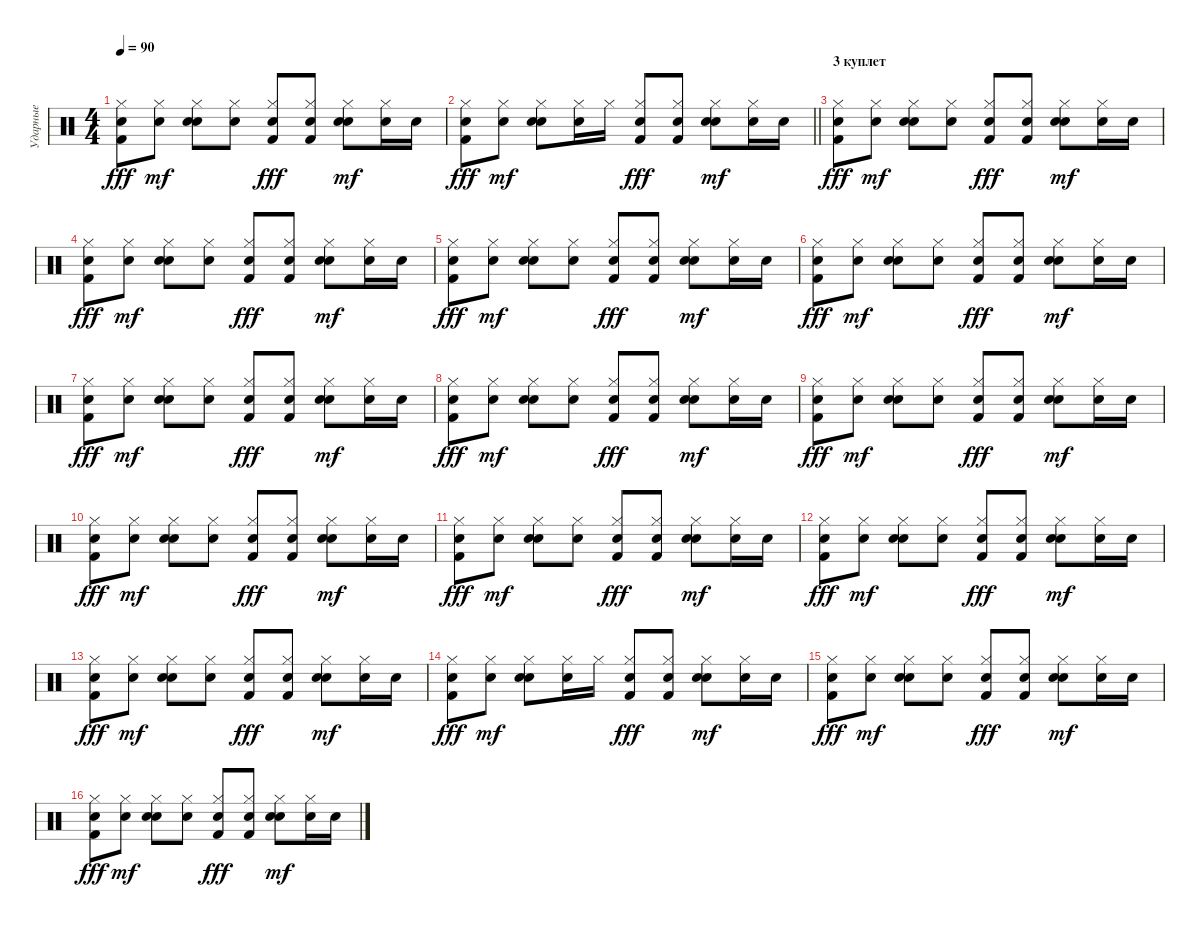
\track ("Ударные" "Ударные") {instrument percussion}
\staff {score}
\articulation defaults
\ts (4 4)
\tempo 90
\clef neutral
\ks c
("Hand Clap (hit)" "Hi-Hat (closed)" "Kick (hit) 2").8{dy fff} ("Hand Clap (hit)" "Hi-Hat (closed)").8{dy mf} ("Hand Clap (hit)" "Hi-Hat (closed)" "Snare (hit) 2").8 ("Hand Clap (hit)" "Hi-Hat (closed)").8 ("Hand Clap (hit)" "Hi-Hat (closed)" "Kick (hit) 2").8{dy fff} ("Hand Clap (hit)" "Hi-Hat (closed)" "Kick (hit) 2").8 ("Hand Clap (hit)" "Hi-Hat (closed)" "Snare (hit) 2").8{dy mf} ("Hand Clap (hit)" "Hi-Hat (closed)").16 "Hand Clap (hit)".16 |
\barLineRight lightlight
("Hand Clap (hit)" "Hi-Hat (closed)" "Kick (hit) 2").8{dy fff} ("Hand Clap (hit)" "Hi-Hat (closed)").8{dy mf} ("Hand Clap (hit)" "Hi-Hat (closed)" "Snare (hit) 2").8 ("Hand Clap (hit)" "Hi-Hat (closed)").16 "Hi-Hat (closed)".16 ("Hand Clap (hit)" "Hi-Hat (closed)" "Kick (hit) 2").8{dy fff} ("Hand Clap (hit)" "Hi-Hat (closed)" "Kick (hit) 2").8 ("Hand Clap (hit)" "Hi-Hat (closed)" "Snare (hit) 2").8{dy mf} ("Hand Clap (hit)" "Hi-Hat (closed)").16 "Hand Clap (hit)".16 |
\section ("" "3 куплет")
("Hand Clap (hit)" "Hi-Hat (closed)" "Kick (hit) 2").8{dy fff} ("Hand Clap (hit)" "Hi-Hat (closed)").8{dy mf} ("Hand Clap (hit)" "Hi-Hat (closed)" "Snare (hit) 2").8 ("Hand Clap (hit)" "Hi-Hat (closed)").8 ("Hand Clap (hit)" "Hi-Hat (closed)" "Kick (hit) 2").8{dy fff} ("Hand Clap (hit)" "Hi-Hat (closed)" "Kick (hit) 2").8 ("Hand Clap (hit)" "Hi-Hat (closed)" "Snare (hit) 2").8{dy mf} ("Hand Clap (hit)" "Hi-Hat (closed)").16 "Hand Clap (hit)".16 |
("Hand Clap (hit)" "Hi-Hat (closed)" "Kick (hit) 2").8{dy fff} ("Hand Clap (hit)" "Hi-Hat (closed)").8{dy mf} ("Hand Clap (hit)" "Hi-Hat (closed)" "Snare (hit) 2").8 ("Hand Clap (hit)" "Hi-Hat (closed)").8 ("Hand Clap (hit)" "Hi-Hat (closed)" "Kick (hit) 2").8{dy fff} ("Hand Clap (hit)" "Hi-Hat (closed)" "Kick (hit) 2").8 ("Hand Clap (hit)" "Hi-Hat (closed)" "Snare (hit) 2").8{dy mf} ("Hand Clap (hit)" "Hi-Hat (closed)").16 "Hand Clap (hit)".16 |
("Hand Clap (hit)" "Hi-Hat (closed)" "Kick (hit) 2").8{dy fff} ("Hand Clap (hit)" "Hi-Hat (closed)").8{dy mf} ("Hand Clap (hit)" "Hi-Hat (closed)" "Snare (hit) 2").8 ("Hand Clap (hit)" "Hi-Hat (closed)").8 ("Hand Clap (hit)" "Hi-Hat (closed)" "Kick (hit) 2").8{dy fff} ("Hand Clap (hit)" "Hi-Hat (closed)" "Kick (hit) 2").8 ("Hand Clap (hit)" "Hi-Hat (closed)" "Snare (hit) 2").8{dy mf} ("Hand Clap (hit)" "Hi-Hat (closed)").16 "Hand Clap (hit)".16 |
("Hand Clap (hit)" "Hi-Hat (closed)" "Kick (hit) 2").8{dy fff} ("Hand Clap (hit)" "Hi-Hat (closed)").8{dy mf} ("Hand Clap (hit)" "Hi-Hat (closed)" "Snare (hit) 2").8 ("Hand Clap (hit)" "Hi-Hat (closed)").8 ("Hand Clap (hit)" "Hi-Hat (closed)" "Kick (hit) 2").8{dy fff} ("Hand Clap (hit)" "Hi-Hat (closed)" "Kick (hit) 2").8 ("Hand Clap (hit)" "Hi-Hat (closed)" "Snare (hit) 2").8{dy mf} ("Hand Clap (hit)" "Hi-Hat (closed)").16 "Hand Clap (hit)".16 |
("Hand Clap (hit)" "Hi-Hat (closed)" "Kick (hit) 2").8{dy fff} ("Hand Clap (hit)" "Hi-Hat (closed)").8{dy mf} ("Hand Clap (hit)" "Hi-Hat (closed)" "Snare (hit) 2").8 ("Hand Clap (hit)" "Hi-Hat (closed)").8 ("Hand Clap (hit)" "Hi-Hat (closed)" "Kick (hit) 2").8{dy fff} ("Hand Clap (hit)" "Hi-Hat (closed)" "Kick (hit) 2").8 ("Hand Clap (hit)" "Hi-Hat (closed)" "Snare (hit) 2").8{dy mf} ("Hand Clap (hit)" "Hi-Hat (closed)").16 "Hand Clap (hit)".16 |
("Hand Clap (hit)" "Hi-Hat (closed)" "Kick (hit) 2").8{dy fff} ("Hand Clap (hit)" "Hi-Hat (closed)").8{dy mf} ("Hand Clap (hit)" "Hi-Hat (closed)" "Snare (hit) 2").8 ("Hand Clap (hit)" "Hi-Hat (closed)").8 ("Hand Clap (hit)" "Hi-Hat (closed)" "Kick (hit) 2").8{dy fff} ("Hand Clap (hit)" "Hi-Hat (closed)" "Kick (hit) 2").8 ("Hand Clap (hit)" "Hi-Hat (closed)" "Snare (hit) 2").8{dy mf} ("Hand Clap (hit)" "Hi-Hat (closed)").16 "Hand Clap (hit)".16 |
("Hand Clap (hit)" "Hi-Hat (closed)" "Kick (hit) 2").8{dy fff} ("Hand Clap (hit)" "Hi-Hat (closed)").8{dy mf} ("Hand Clap (hit)" "Hi-Hat (closed)" "Snare (hit) 2").8 ("Hand Clap (hit)" "Hi-Hat (closed)").8 ("Hand Clap (hit)" "Hi-Hat (closed)" "Kick (hit) 2").8{dy fff} ("Hand Clap (hit)" "Hi-Hat (closed)" "Kick (hit) 2").8 ("Hand Clap (hit)" "Hi-Hat (closed)" "Snare (hit) 2").8{dy mf} ("Hand Clap (hit)" "Hi-Hat (closed)").16 "Hand Clap (hit)".16 |
("Hand Clap (hit)" "Hi-Hat (closed)" "Kick (hit) 2").8{dy fff} ("Hand Clap (hit)" "Hi-Hat (closed)").8{dy mf} ("Hand Clap (hit)" "Hi-Hat (closed)" "Snare (hit) 2").8 ("Hand Clap (hit)" "Hi-Hat (closed)").8 ("Hand Clap (hit)" "Hi-Hat (closed)" "Kick (hit) 2").8{dy fff} ("Hand Clap (hit)" "Hi-Hat (closed)" "Kick (hit) 2").8 ("Hand Clap (hit)" "Hi-Hat (closed)" "Snare (hit) 2").8{dy mf} ("Hand Clap (hit)" "Hi-Hat (closed)").16 "Hand Clap (hit)".16 |
("Hand Clap (hit)" "Hi-Hat (closed)" "Kick (hit) 2").8{dy fff} ("Hand Clap (hit)" "Hi-Hat (closed)").8{dy mf} ("Hand Clap (hit)" "Hi-Hat (closed)" "Snare (hit) 2").8 ("Hand Clap (hit)" "Hi-Hat (closed)").8 ("Hand Clap (hit)" "Hi-Hat (closed)" "Kick (hit) 2").8{dy fff} ("Hand Clap (hit)" "Hi-Hat (closed)" "Kick (hit) 2").8 ("Hand Clap (hit)" "Hi-Hat (closed)" "Snare (hit) 2").8{dy mf} ("Hand Clap (hit)" "Hi-Hat (closed)").16 "Hand Clap (hit)".16 |
("Hand Clap (hit)" "Hi-Hat (closed)" "Kick (hit) 2").8{dy fff} ("Hand Clap (hit)" "Hi-Hat (closed)").8{dy mf} ("Hand Clap (hit)" "Hi-Hat (closed)" "Snare (hit) 2").8 ("Hand Clap (hit)" "Hi-Hat (closed)").8 ("Hand Clap (hit)" "Hi-Hat (closed)" "Kick (hit) 2").8{dy fff} ("Hand Clap (hit)" "Hi-Hat (closed)" "Kick (hit) 2").8 ("Hand Clap (hit)" "Hi-Hat (closed)" "Snare (hit) 2").8{dy mf} ("Hand Clap (hit)" "Hi-Hat (closed)").16 "Hand Clap (hit)".16 |
("Hand Clap (hit)" "Hi-Hat (closed)" "Kick (hit) 2").8{dy fff} ("Hand Clap (hit)" "Hi-Hat (closed)").8{dy mf} ("Hand Clap (hit)" "Hi-Hat (closed)" "Snare (hit) 2").8 ("Hand Clap (hit)" "Hi-Hat (closed)").8 ("Hand Clap (hit)" "Hi-Hat (closed)" "Kick (hit) 2").8{dy fff} ("Hand Clap (hit)" "Hi-Hat (closed)" "Kick (hit) 2").8 ("Hand Clap (hit)" "Hi-Hat (closed)" "Snare (hit) 2").8{dy mf} ("Hand Clap (hit)" "Hi-Hat (closed)").16 "Hand Clap (hit)".16 |
("Hand Clap (hit)" "Hi-Hat (closed)" "Kick (hit) 2").8{dy fff} ("Hand Clap (hit)" "Hi-Hat (closed)").8{dy mf} ("Hand Clap (hit)" "Hi-Hat (closed)" "Snare (hit) 2").8 ("Hand Clap (hit)" "Hi-Hat (closed)").16 "Hi-Hat (closed)".16 ("Hand Clap (hit)" "Hi-Hat (closed)" "Kick (hit) 2").8{dy fff} ("Hand Clap (hit)" "Hi-Hat (closed)" "Kick (hit) 2").8 ("Hand Clap (hit)" "Hi-Hat (closed)" "Snare (hit) 2").8{dy mf} ("Hand Clap (hit)" "Hi-Hat (closed)").16 "Hand Clap (hit)".16 |
("Hand Clap (hit)" "Hi-Hat (closed)" "Kick (hit) 2").8{dy fff} ("Hand Clap (hit)" "Hi-Hat (closed)").8{dy mf} ("Hand Clap (hit)" "Hi-Hat (closed)" "Snare (hit) 2").8 ("Hand Clap (hit)" "Hi-Hat (closed)").8 ("Hand Clap (hit)" "Hi-Hat (closed)" "Kick (hit) 2").8{dy fff} ("Hand Clap (hit)" "Hi-Hat (closed)" "Kick (hit) 2").8 ("Hand Clap (hit)" "Hi-Hat (closed)" "Snare (hit) 2").8{dy mf} ("Hand Clap (hit)" "Hi-Hat (closed)").16 "Hand Clap (hit)".16 |
("Hand Clap (hit)" "Hi-Hat (closed)" "Kick (hit) 2").8{dy fff} ("Hand Clap (hit)" "Hi-Hat (closed)").8{dy mf} ("Hand Clap (hit)" "Hi-Hat (closed)" "Snare (hit) 2").8 ("Hand Clap (hit)" "Hi-Hat (closed)").8 ("Hand Clap (hit)" "Hi-Hat (closed)" "Kick (hit) 2").8{dy fff} ("Hand Clap (hit)" "Hi-Hat (closed)" "Kick (hit) 2").8 ("Hand Clap (hit)" "Hi-Hat (closed)" "Snare (hit) 2").8{dy mf} ("Hand Clap (hit)" "Hi-Hat (closed)").16 "Hand Clap (hit)".16
